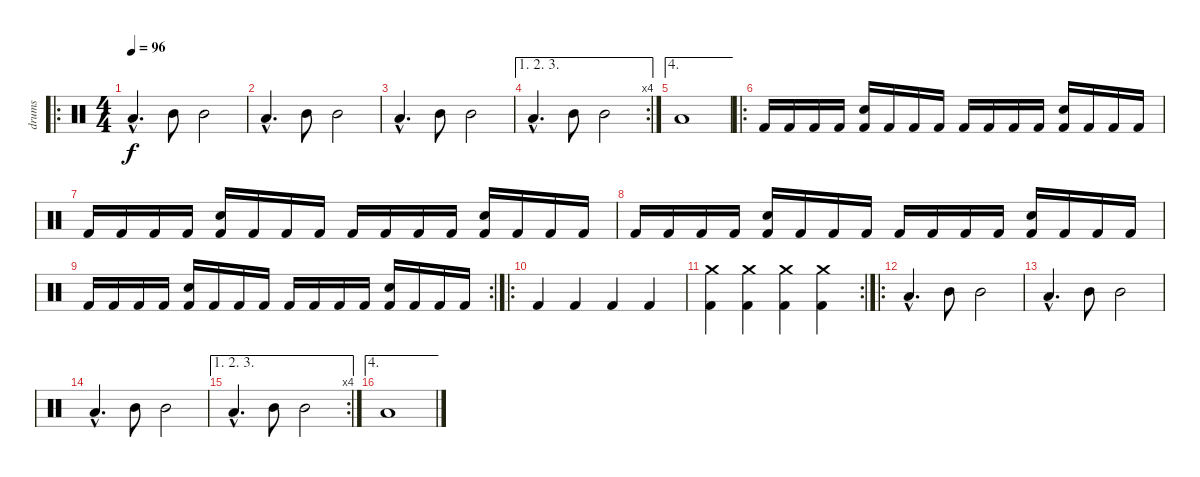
\track ("drums" "drums") {instrument percussion}
\staff {score}
\articulation defaults
\ro
\ts (4 4)
\tempo 96
\clef neutral
\ks c "Low Tom (hit)"{hac}.4{d dy f} "Mid Tom (hit)".8 "Mid Tom (hit)".2
|
"Low Tom (hit)"{hac}.4{d} "Mid Tom (hit)".8 "Mid Tom (hit)".2 |
"Low Tom (hit)"{hac}.4{d} "Mid Tom (hit)".8 "Mid Tom (hit)".2 |
\ae (1 2 3)
\rc 4 "Low Tom (hit)"{hac}.4{d} "Mid Tom (hit)".8 "Mid Tom (hit)".2
|
\ae 4 "Low Tom (hit)".1
|
\ro "Kick (hit) 2".16 "Kick (hit) 2".16 "Kick (hit) 2".16 "Kick (hit) 2".16
("Electric Snare (hit)" "Kick (hit) 2").16 "Kick (hit) 2".16 "Kick (hit) 2".16 "Kick (hit) 2".16 "Kick (hit) 2".16 "Kick (hit) 2".16 "Kick (hit) 2".16 "Kick (hit) 2".16 ("Electric Snare (hit)" "Kick (hit) 2").16 "Kick (hit) 2".16 "Kick (hit) 2".16 "Kick (hit) 2".16 |
"Kick (hit) 2".16 "Kick (hit) 2".16 "Kick (hit) 2".16 "Kick (hit) 2".16 ("Electric Snare (hit)" "Kick (hit) 2").16 "Kick (hit) 2".16 "Kick (hit) 2".16 "Kick (hit) 2".16 "Kick (hit) 2".16 "Kick (hit) 2".16 "Kick (hit) 2".16 "Kick (hit) 2".16 ("Electric Snare (hit)" "Kick (hit) 2").16 "Kick (hit) 2".16 "Kick (hit) 2".16 "Kick (hit) 2".16 |
"Kick (hit) 2".16 "Kick (hit) 2".16 "Kick (hit) 2".16 "Kick (hit) 2".16 ("Electric Snare (hit)" "Kick (hit) 2").16 "Kick (hit) 2".16 "Kick (hit) 2".16 "Kick (hit) 2".16 "Kick (hit) 2".16 "Kick (hit) 2".16 "Kick (hit) 2".16 "Kick (hit) 2".16 ("Electric Snare (hit)" "Kick (hit) 2").16 "Kick (hit) 2".16 "Kick (hit) 2".16 "Kick (hit) 2".16 |
\rc 2 "Kick (hit) 2".16 "Kick (hit) 2".16 "Kick (hit) 2".16 "Kick (hit) 2".16
("Electric Snare (hit)" "Kick (hit) 2").16 "Kick (hit) 2".16 "Kick (hit) 2".16 "Kick (hit) 2".16 "Kick (hit) 2".16 "Kick (hit) 2".16 "Kick (hit) 2".16 "Kick (hit) 2".16 ("Electric Snare (hit)" "Kick (hit) 2").16 "Kick (hit) 2".16 "Kick (hit) 2".16 "Kick (hit) 2".16 |
\ro "Kick (hit) 2".4 "Kick (hit) 2".4 "Kick (hit) 2".4 "Kick (hit) 2".4
|
\rc 2
("Crash medium (hit)" "Kick (hit) 2").4 ("Crash medium (hit)" "Kick (hit) 2").4 ("Crash medium (hit)" "Kick (hit) 2").4 ("Crash medium (hit)" "Kick (hit) 2").4 |
\ro "Low Tom (hit)"{hac}.4{d} "Mid Tom (hit)".8 "Mid Tom (hit)".2
|
"Low Tom (hit)"{hac}.4{d} "Mid Tom (hit)".8 "Mid Tom (hit)".2 |
"Low Tom (hit)"{hac}.4{d} "Mid Tom (hit)".8 "Mid Tom (hit)".2 |
\ae (1 2 3)
\rc 4 "Low Tom (hit)"{hac}.4{d} "Mid Tom (hit)".8 "Mid Tom (hit)".2
|
\ae 4 "Low Tom (hit)".1
